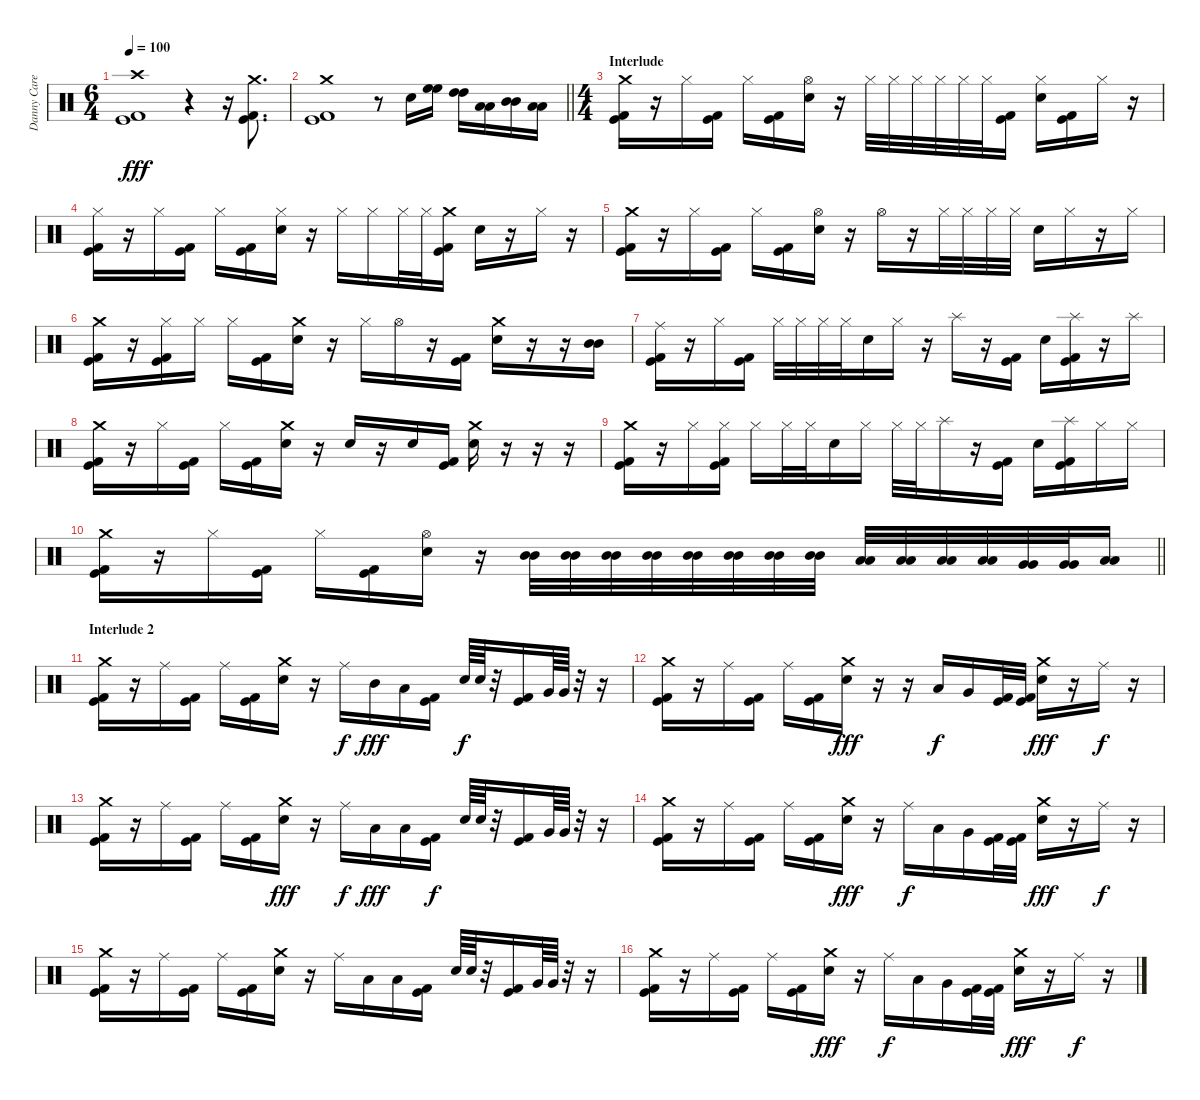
\track ("Danny Carey - Percussion" "Danny Care") {instrument percussion}
\staff {score}
\articulation defaults
\ts (6 4)
\tempo 100
\clef neutral
\ks c
("Crash high (hit)" "Kick (hit)" "Kick (hit) 2").1{dy fff} r.4 r.16 ("Crash medium (hit)" "Kick (hit)" "Kick (hit) 2").8{d} |
\barLineRight lightlight
("Crash medium (hit)" "Kick (hit)" "Kick (hit) 2").1 r.8 "Electric Snare (hit)".16 ("High Floor Tom (hit)" "High Floor Tom (hit)").16 ("High Tom (hit)" "High Tom (hit)").16 ("Low Tom (hit)" "Low Tom (hit)").16 ("Mid Tom (hit)" "Mid Tom (hit)").16 ("Low Tom (hit)" "Low Tom (hit)").16 |
\ts (4 4)
\section ("" "Interlude")
("Crash medium (hit)" "Kick (hit)" "Kick (hit) 2").16 r.16 "Hi-Hat (closed)".16 ("Kick (hit)" "Kick (hit) 2").16 "Hi-Hat (closed)".16 ("Kick (hit)" "Kick (hit) 2").16 ("Hi-Hat (open)" "Electric Snare (hit)").16 r.16 "Hi-Hat (closed)".32 "Hi-Hat (closed)".32 "Hi-Hat (closed)".32 "Hi-Hat (closed)".32 "Hi-Hat (closed)".32 "Hi-Hat (closed)".32 ("Kick (hit)" "Kick (hit) 2").16 ("Hi-Hat (closed)" "Electric Snare (hit)").16 ("Kick (hit)" "Kick (hit) 2").16 "Hi-Hat (closed)".16 r.16 |
("Hi-Hat (closed)" "Kick (hit)" "Kick (hit) 2").16 r.16 "Hi-Hat (closed)".16 ("Kick (hit)" "Kick (hit) 2").16 "Hi-Hat (closed)".16 ("Kick (hit)" "Kick (hit) 2").16 ("Hi-Hat (closed)" "Electric Snare (hit)").16 r.16 "Hi-Hat (closed)".16 "Hi-Hat (closed)".16 "Hi-Hat (closed)".32 "Hi-Hat (closed)".32 ("Crash medium (hit)" "Kick (hit)" "Kick (hit) 2").16 "Electric Snare (hit)".16 r.16 "Hi-Hat (closed)".16 r.16 |
("Crash medium (hit)" "Kick (hit)" "Kick (hit) 2").16 r.16 "Hi-Hat (closed)".16 ("Kick (hit)" "Kick (hit) 2").16 "Hi-Hat (closed)".16 ("Kick (hit)" "Kick (hit) 2").16 ("Hi-Hat (open)" "Electric Snare (hit)").16 r.16 "Hi-Hat (open)".16 r.16 "Hi-Hat (closed)".32 "Hi-Hat (closed)".32 "Hi-Hat (closed)".32 "Hi-Hat (closed)".32 "Electric Snare (hit)".16 "Hi-Hat (closed)".16 r.16 "Hi-Hat (closed)".16 |
("Crash medium (hit)" "Kick (hit)" "Kick (hit) 2").16 r.16 ("Hi-Hat (closed)" "Kick (hit)" "Kick (hit) 2").16 "Hi-Hat (closed)".16 "Hi-Hat (closed)".16 ("Kick (hit)" "Kick (hit) 2").16 ("Crash medium (hit)" "Electric Snare (hit)").16 r.16 "Hi-Hat (closed)".16 "Hi-Hat (open)".16 r.16 ("Kick (hit)" "Kick (hit) 2").16 ("Crash medium (hit)" "Electric Snare (hit)").16 r.16 r.16 ("Mid Tom (hit)" "Mid Tom (hit)").16 |
("Ride (middle)" "Kick (hit)" "Kick (hit) 2").16 r.16 "Hi-Hat (closed)".16 ("Kick (hit)" "Kick (hit) 2").16 "Hi-Hat (closed)".32 "Hi-Hat (closed)".32 "Hi-Hat (closed)".32 "Hi-Hat (closed)".32 "Electric Snare (hit)".16 "Hi-Hat (closed)".16 r.16 "Splash (hit)".16 r.16 ("Kick (hit)" "Kick (hit) 2").16 "Electric Snare (hit)".16 ("Splash (hit)" "Kick (hit)" "Kick (hit) 2").16 r.16 "Splash (hit)".16 |
("Crash medium (hit)" "Kick (hit)" "Kick (hit) 2").16 r.16 "Hi-Hat (closed)".16 ("Kick (hit)" "Kick (hit) 2").16 "Hi-Hat (closed)".16 ("Kick (hit)" "Kick (hit) 2").16 ("Crash medium (hit)" "Electric Snare (hit)").16 r.16 "Electric Snare (hit)".16 r.16 "Electric Snare (hit)".16 ("Kick (hit)" "Kick (hit) 2").16 ("Crash medium (hit)" "Electric Snare (hit)").16 r.16 r.16 r.16 |
("Crash medium (hit)" "Kick (hit)" "Kick (hit) 2").16 r.16 "Hi-Hat (closed)".16 ("Hi-Hat (closed)" "Kick (hit)" "Kick (hit) 2").16 "Hi-Hat (closed)".16 "Hi-Hat (closed)".32 "Hi-Hat (closed)".32 "Electric Snare (hit)".16 "Hi-Hat (closed)".16 "Hi-Hat (closed)".32 "Hi-Hat (closed)".32 "Splash (hit)".16 r.16 ("Kick (hit)" "Kick (hit) 2").16 "Electric Snare (hit)".16 ("Splash (hit)" "Kick (hit)" "Kick (hit) 2").16 "Hi-Hat (closed)".16 "Hi-Hat (closed)".16 |
\barLineRight lightlight
("Crash medium (hit)" "Kick (hit)" "Kick (hit) 2").16 r.16 "Hi-Hat (closed)".16 ("Kick (hit)" "Kick (hit) 2").16 "Hi-Hat (closed)".16 ("Kick (hit)" "Kick (hit) 2").16 ("Hi-Hat (open)" "Electric Snare (hit)").16 r.16 ("Mid Tom (hit)" "Mid Tom (hit)").32 ("Mid Tom (hit)" "Mid Tom (hit)").32 ("Mid Tom (hit)" "Mid Tom (hit)").32 ("Mid Tom (hit)" "Mid Tom (hit)").32 ("Mid Tom (hit)" "Mid Tom (hit)").32 ("Mid Tom (hit)" "Mid Tom (hit)").32 ("Mid Tom (hit)" "Mid Tom (hit)").32 ("Mid Tom (hit)" "Mid Tom (hit)").32 ("Low Tom (hit)" "Low Tom (hit)").32 ("Low Tom (hit)" "Low Tom (hit)").32 ("Low Tom (hit)" "Low Tom (hit)").32 ("Low Tom (hit)" "Low Tom (hit)").32 ("Very Low Tom (hit)" "Very Low Tom (hit)").32 ("Very Low Tom (hit)" "Very Low Tom (hit)").32 ("Low Floor Tom (hit)" "Low Floor Tom (hit)").16 |
\section ("" "Interlude 2")
("Crash medium (hit)" "Kick (hit)" "Kick (hit) 2").16 r.16 "Ride (middle)".16 ("Kick (hit)" "Kick (hit) 2").16 "Ride (middle)".16 ("Kick (hit)" "Kick (hit) 2").16 ("Crash medium (hit)" "Electric Snare (hit)").16 r.16 "Ride (middle)".16{dy f} "Mid Tom (hit)".16{dy fff} "Low Tom (hit)".16 ("Kick (hit)" "Kick (hit) 2").16 "Electric Snare (hit)".64{dy f} "Electric Snare (hit)".64 r.32 ("Kick (hit)" "Kick (hit) 2").16 "Very Low Tom (hit)".64 "Very Low Tom (hit)".64 r.32 r.16 |
("Crash medium (hit)" "Kick (hit)" "Kick (hit) 2").16 r.16 "Ride (middle)".16 ("Kick (hit)" "Kick (hit) 2").16 "Ride (middle)".16 ("Kick (hit)" "Kick (hit) 2").16 ("Crash medium (hit)" "Electric Snare (hit)").16{dy fff} r.16 r.16 "Low Tom (hit)".16{dy f} "Very Low Tom (hit)".16 ("Kick (hit)" "Kick (hit) 2").32 ("Kick (hit)" "Kick (hit) 2").32 ("Crash medium (hit)" "Electric Snare (hit)").16{dy fff} r.16 "Ride (middle)".16{dy f} r.16 |
("Crash medium (hit)" "Kick (hit)" "Kick (hit) 2").16 r.16 "Ride (middle)".16 ("Kick (hit)" "Kick (hit) 2").16 "Ride (middle)".16 ("Kick (hit)" "Kick (hit) 2").16 ("Crash medium (hit)" "Electric Snare (hit)").16{dy fff} r.16 "Ride (middle)".16{dy f} "Low Tom (hit)".16{dy fff} "Low Tom (hit)".16 ("Kick (hit)" "Kick (hit) 2").16{dy f} "Electric Snare (hit)".64 "Electric Snare (hit)".64 r.32 ("Kick (hit)" "Kick (hit) 2").16 "Very Low Tom (hit)".64 "Very Low Tom (hit)".64 r.32 r.16 |
("Crash medium (hit)" "Kick (hit)" "Kick (hit) 2").16 r.16 "Ride (middle)".16 ("Kick (hit)" "Kick (hit) 2").16 "Ride (middle)".16 ("Kick (hit)" "Kick (hit) 2").16 ("Crash medium (hit)" "Electric Snare (hit)").16{dy fff} r.16 "Ride (middle)".16{dy f} "Low Tom (hit)".16 "Very Low Tom (hit)".16 ("Kick (hit)" "Kick (hit) 2").32 ("Kick (hit)" "Kick (hit) 2").32 ("Crash medium (hit)" "Electric Snare (hit)").16{dy fff} r.16 "Ride (middle)".16{dy f} r.16 |
("Crash medium (hit)" "Kick (hit)" "Kick (hit) 2").16 r.16 "Ride (middle)".16 ("Kick (hit)" "Kick (hit) 2").16 "Ride (middle)".16 ("Kick (hit)" "Kick (hit) 2").16 ("Crash medium (hit)" "Electric Snare (hit)").16 r.16 "Ride (middle)".16 "Low Tom (hit)".16 "Low Tom (hit)".16 ("Kick (hit)" "Kick (hit) 2").16 "Electric Snare (hit)".64 "Electric Snare (hit)".64 r.32 ("Kick (hit)" "Kick (hit) 2").16 "Very Low Tom (hit)".64 "Very Low Tom (hit)".64 r.32 r.16 |
("Crash medium (hit)" "Kick (hit)" "Kick (hit) 2").16 r.16 "Ride (middle)".16 ("Kick (hit)" "Kick (hit) 2").16 "Ride (middle)".16 ("Kick (hit)" "Kick (hit) 2").16 ("Crash medium (hit)" "Electric Snare (hit)").16{dy fff} r.16 "Ride (middle)".16{dy f} "Low Tom (hit)".16 "Very Low Tom (hit)".16 ("Kick (hit)" "Kick (hit) 2").32 ("Kick (hit)" "Kick (hit) 2").32 ("Crash medium (hit)" "Electric Snare (hit)").16{dy fff} r.16 "Ride (middle)".16{dy f} r.16
